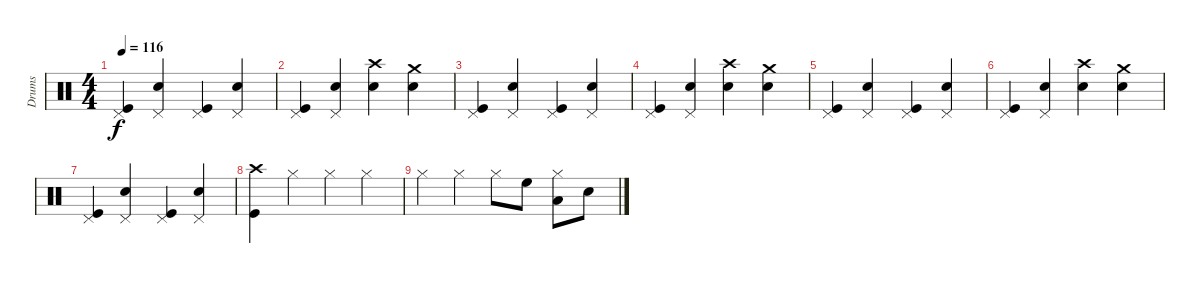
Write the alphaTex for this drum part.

\track ("Drums" "Drums") {instrument percussion}
\staff {score}
\articulation defaults
\ts (4 4)
\tempo 116
\clef neutral
\ks c
("Pedal Hi-Hat (hit)" "Kick (hit)").4{dy f} ("Pedal Hi-Hat (hit)" "Electric Snare (hit)").4 ("Pedal Hi-Hat (hit)" "Kick (hit)").4 ("Pedal Hi-Hat (hit)" "Electric Snare (hit)").4 |
("Pedal Hi-Hat (hit)" "Kick (hit)").4 ("Pedal Hi-Hat (hit)" "Electric Snare (hit)").4 ("Electric Snare (hit)" "Crash high (hit)").4 ("Crash medium (hit)" "Electric Snare (hit)").4 |
("Pedal Hi-Hat (hit)" "Kick (hit)").4 ("Pedal Hi-Hat (hit)" "Electric Snare (hit)").4 ("Pedal Hi-Hat (hit)" "Kick (hit)").4 ("Pedal Hi-Hat (hit)" "Electric Snare (hit)").4 |
("Pedal Hi-Hat (hit)" "Kick (hit)").4 ("Pedal Hi-Hat (hit)" "Electric Snare (hit)").4 ("Electric Snare (hit)" "Crash high (hit)").4 ("Crash medium (hit)" "Electric Snare (hit)").4 |
("Pedal Hi-Hat (hit)" "Kick (hit)").4 ("Pedal Hi-Hat (hit)" "Electric Snare (hit)").4 ("Pedal Hi-Hat (hit)" "Kick (hit)").4 ("Pedal Hi-Hat (hit)" "Electric Snare (hit)").4 |
("Pedal Hi-Hat (hit)" "Kick (hit)").4 ("Pedal Hi-Hat (hit)" "Electric Snare (hit)").4 ("Electric Snare (hit)" "Crash high (hit)").4 ("Crash medium (hit)" "Electric Snare (hit)").4 |
("Pedal Hi-Hat (hit)" "Kick (hit)").4 ("Pedal Hi-Hat (hit)" "Electric Snare (hit)").4 ("Pedal Hi-Hat (hit)" "Kick (hit)").4 ("Pedal Hi-Hat (hit)" "Electric Snare (hit)").4 |
("Crash high (hit)" "Kick (hit)").4 "Hi-Hat (closed)".4 "Hi-Hat (closed)".4 "Hi-Hat (closed)".4 |
"Hi-Hat (closed)".4 "Hi-Hat (closed)".4 "Hi-Hat (closed)".8 "High Floor Tom (hit)".8 ("Low Tom (hit)" "Hi-Hat (closed)").8 "Electric Snare (hit)".8
